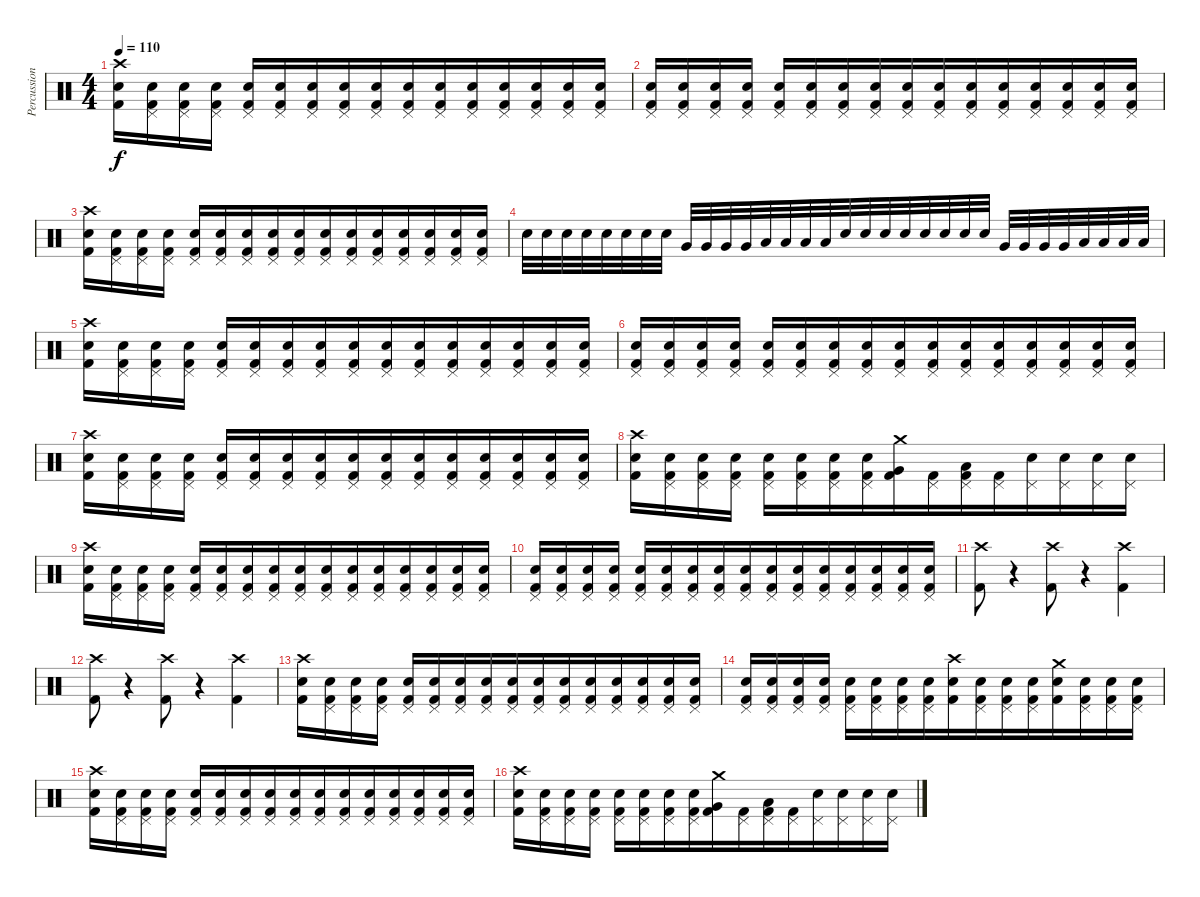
\track ("Percussion" "Percussion") {instrument percussion bank 36}
\staff {score}
\articulation defaults
\ts (4 4)
\tempo 110
\clef neutral
\ks c
("Crash high (hit)" "Electric Snare (hit)" "Kick (hit) 2").16{dy f} ("Pedal Hi-Hat (hit)" "Electric Snare (hit)" "Kick (hit) 2").16 ("Pedal Hi-Hat (hit)" "Electric Snare (hit)" "Kick (hit) 2").16 ("Pedal Hi-Hat (hit)" "Electric Snare (hit)" "Kick (hit) 2").16 ("Pedal Hi-Hat (hit)" "Electric Snare (hit)" "Kick (hit) 2").16 ("Pedal Hi-Hat (hit)" "Electric Snare (hit)" "Kick (hit) 2").16 ("Pedal Hi-Hat (hit)" "Electric Snare (hit)" "Kick (hit) 2").16 ("Pedal Hi-Hat (hit)" "Electric Snare (hit)" "Kick (hit) 2").16{beam merge} ("Pedal Hi-Hat (hit)" "Electric Snare (hit)" "Kick (hit) 2").16{beam merge} ("Pedal Hi-Hat (hit)" "Electric Snare (hit)" "Kick (hit) 2").16{beam merge} ("Pedal Hi-Hat (hit)" "Electric Snare (hit)" "Kick (hit) 2").16 ("Pedal Hi-Hat (hit)" "Electric Snare (hit)" "Kick (hit) 2").16{beam merge} ("Pedal Hi-Hat (hit)" "Electric Snare (hit)" "Kick (hit) 2").16{beam merge} ("Pedal Hi-Hat (hit)" "Electric Snare (hit)" "Kick (hit) 2").16{beam merge} ("Pedal Hi-Hat (hit)" "Electric Snare (hit)" "Kick (hit) 2").16 ("Pedal Hi-Hat (hit)" "Electric Snare (hit)" "Kick (hit) 2").16 |
("Pedal Hi-Hat (hit)" "Electric Snare (hit)" "Kick (hit) 2").16 ("Pedal Hi-Hat (hit)" "Electric Snare (hit)" "Kick (hit) 2").16 ("Pedal Hi-Hat (hit)" "Electric Snare (hit)" "Kick (hit) 2").16 ("Pedal Hi-Hat (hit)" "Electric Snare (hit)" "Kick (hit) 2").16 ("Pedal Hi-Hat (hit)" "Electric Snare (hit)" "Kick (hit) 2").16 ("Pedal Hi-Hat (hit)" "Electric Snare (hit)" "Kick (hit) 2").16 ("Pedal Hi-Hat (hit)" "Electric Snare (hit)" "Kick (hit) 2").16 ("Pedal Hi-Hat (hit)" "Electric Snare (hit)" "Kick (hit) 2").16{beam merge} ("Pedal Hi-Hat (hit)" "Electric Snare (hit)" "Kick (hit) 2").16{beam merge} ("Pedal Hi-Hat (hit)" "Electric Snare (hit)" "Kick (hit) 2").16{beam merge} ("Pedal Hi-Hat (hit)" "Electric Snare (hit)" "Kick (hit) 2").16 ("Pedal Hi-Hat (hit)" "Electric Snare (hit)" "Kick (hit) 2").16{beam merge} ("Pedal Hi-Hat (hit)" "Electric Snare (hit)" "Kick (hit) 2").16{beam merge} ("Pedal Hi-Hat (hit)" "Electric Snare (hit)" "Kick (hit) 2").16{beam merge} ("Pedal Hi-Hat (hit)" "Electric Snare (hit)" "Kick (hit) 2").16 ("Pedal Hi-Hat (hit)" "Electric Snare (hit)" "Kick (hit) 2").16 |
("Crash high (hit)" "Electric Snare (hit)" "Kick (hit) 2").16 ("Pedal Hi-Hat (hit)" "Electric Snare (hit)" "Kick (hit) 2").16 ("Pedal Hi-Hat (hit)" "Electric Snare (hit)" "Kick (hit) 2").16 ("Pedal Hi-Hat (hit)" "Electric Snare (hit)" "Kick (hit) 2").16 ("Pedal Hi-Hat (hit)" "Electric Snare (hit)" "Kick (hit) 2").16 ("Pedal Hi-Hat (hit)" "Electric Snare (hit)" "Kick (hit) 2").16 ("Pedal Hi-Hat (hit)" "Electric Snare (hit)" "Kick (hit) 2").16 ("Pedal Hi-Hat (hit)" "Electric Snare (hit)" "Kick (hit) 2").16{beam merge} ("Pedal Hi-Hat (hit)" "Electric Snare (hit)" "Kick (hit) 2").16{beam merge} ("Pedal Hi-Hat (hit)" "Electric Snare (hit)" "Kick (hit) 2").16{beam merge} ("Pedal Hi-Hat (hit)" "Electric Snare (hit)" "Kick (hit) 2").16 ("Pedal Hi-Hat (hit)" "Electric Snare (hit)" "Kick (hit) 2").16{beam merge} ("Pedal Hi-Hat (hit)" "Electric Snare (hit)" "Kick (hit) 2").16{beam merge} ("Pedal Hi-Hat (hit)" "Electric Snare (hit)" "Kick (hit) 2").16{beam merge} ("Pedal Hi-Hat (hit)" "Electric Snare (hit)" "Kick (hit) 2").16 ("Pedal Hi-Hat (hit)" "Electric Snare (hit)" "Kick (hit) 2").16 |
"Electric Snare (hit)".32{beam merge} "Electric Snare (hit)".32{beam merge} "Electric Snare (hit)".32 "Electric Snare (hit)".32 "Electric Snare (hit)".32{beam merge} "Electric Snare (hit)".32{beam merge} "Electric Snare (hit)".32 "Electric Snare (hit)".32 "Very Low Tom (hit)".32{beam merge} "Very Low Tom (hit)".32 "Very Low Tom (hit)".32{beam merge} "Very Low Tom (hit)".32 "Low Floor Tom (hit)".32{beam merge} "Low Floor Tom (hit)".32 "Low Floor Tom (hit)".32 "Low Floor Tom (hit)".32{beam merge} "Electric Snare (hit)".32{beam merge} "Electric Snare (hit)".32{beam merge} "Electric Snare (hit)".32{beam merge} "Electric Snare (hit)".32{beam merge} "Electric Snare (hit)".32 "Electric Snare (hit)".32{beam merge} "Electric Snare (hit)".32 "Electric Snare (hit)".32 "Very Low Tom (hit)".32 "Very Low Tom (hit)".32 "Very Low Tom (hit)".32{beam merge} "Very Low Tom (hit)".32 "Low Floor Tom (hit)".32{beam merge} "Low Floor Tom (hit)".32{beam merge} "Low Floor Tom (hit)".32{beam merge} "Low Floor Tom (hit)".32 |
("Crash high (hit)" "Electric Snare (hit)" "Kick (hit) 2").16 ("Pedal Hi-Hat (hit)" "Electric Snare (hit)" "Kick (hit) 2").16 ("Pedal Hi-Hat (hit)" "Electric Snare (hit)" "Kick (hit) 2").16 ("Pedal Hi-Hat (hit)" "Electric Snare (hit)" "Kick (hit) 2").16 ("Pedal Hi-Hat (hit)" "Electric Snare (hit)" "Kick (hit) 2").16 ("Pedal Hi-Hat (hit)" "Electric Snare (hit)" "Kick (hit) 2").16 ("Pedal Hi-Hat (hit)" "Electric Snare (hit)" "Kick (hit) 2").16 ("Pedal Hi-Hat (hit)" "Electric Snare (hit)" "Kick (hit) 2").16{beam merge} ("Pedal Hi-Hat (hit)" "Electric Snare (hit)" "Kick (hit) 2").16{beam merge} ("Pedal Hi-Hat (hit)" "Electric Snare (hit)" "Kick (hit) 2").16{beam merge} ("Pedal Hi-Hat (hit)" "Electric Snare (hit)" "Kick (hit) 2").16 ("Pedal Hi-Hat (hit)" "Electric Snare (hit)" "Kick (hit) 2").16{beam merge} ("Pedal Hi-Hat (hit)" "Electric Snare (hit)" "Kick (hit) 2").16{beam merge} ("Pedal Hi-Hat (hit)" "Electric Snare (hit)" "Kick (hit) 2").16{beam merge} ("Pedal Hi-Hat (hit)" "Electric Snare (hit)" "Kick (hit) 2").16 ("Pedal Hi-Hat (hit)" "Electric Snare (hit)" "Kick (hit) 2").16 |
("Pedal Hi-Hat (hit)" "Electric Snare (hit)" "Kick (hit) 2").16 ("Pedal Hi-Hat (hit)" "Electric Snare (hit)" "Kick (hit) 2").16 ("Pedal Hi-Hat (hit)" "Electric Snare (hit)" "Kick (hit) 2").16 ("Pedal Hi-Hat (hit)" "Electric Snare (hit)" "Kick (hit) 2").16 ("Pedal Hi-Hat (hit)" "Electric Snare (hit)" "Kick (hit) 2").16 ("Pedal Hi-Hat (hit)" "Electric Snare (hit)" "Kick (hit) 2").16 ("Pedal Hi-Hat (hit)" "Electric Snare (hit)" "Kick (hit) 2").16 ("Pedal Hi-Hat (hit)" "Electric Snare (hit)" "Kick (hit) 2").16{beam merge} ("Pedal Hi-Hat (hit)" "Electric Snare (hit)" "Kick (hit) 2").16{beam merge} ("Pedal Hi-Hat (hit)" "Electric Snare (hit)" "Kick (hit) 2").16{beam merge} ("Pedal Hi-Hat (hit)" "Electric Snare (hit)" "Kick (hit) 2").16 ("Pedal Hi-Hat (hit)" "Electric Snare (hit)" "Kick (hit) 2").16{beam merge} ("Pedal Hi-Hat (hit)" "Electric Snare (hit)" "Kick (hit) 2").16{beam merge} ("Pedal Hi-Hat (hit)" "Electric Snare (hit)" "Kick (hit) 2").16{beam merge} ("Pedal Hi-Hat (hit)" "Electric Snare (hit)" "Kick (hit) 2").16 ("Pedal Hi-Hat (hit)" "Electric Snare (hit)" "Kick (hit) 2").16 |
("Crash high (hit)" "Electric Snare (hit)" "Kick (hit) 2").16 ("Pedal Hi-Hat (hit)" "Electric Snare (hit)" "Kick (hit) 2").16 ("Pedal Hi-Hat (hit)" "Electric Snare (hit)" "Kick (hit) 2").16 ("Pedal Hi-Hat (hit)" "Electric Snare (hit)" "Kick (hit) 2").16 ("Pedal Hi-Hat (hit)" "Electric Snare (hit)" "Kick (hit) 2").16 ("Pedal Hi-Hat (hit)" "Electric Snare (hit)" "Kick (hit) 2").16 ("Pedal Hi-Hat (hit)" "Electric Snare (hit)" "Kick (hit) 2").16 ("Pedal Hi-Hat (hit)" "Electric Snare (hit)" "Kick (hit) 2").16{beam merge} ("Pedal Hi-Hat (hit)" "Electric Snare (hit)" "Kick (hit) 2").16{beam merge} ("Pedal Hi-Hat (hit)" "Electric Snare (hit)" "Kick (hit) 2").16{beam merge} ("Pedal Hi-Hat (hit)" "Electric Snare (hit)" "Kick (hit) 2").16 ("Pedal Hi-Hat (hit)" "Electric Snare (hit)" "Kick (hit) 2").16{beam merge} ("Pedal Hi-Hat (hit)" "Electric Snare (hit)" "Kick (hit) 2").16{beam merge} ("Pedal Hi-Hat (hit)" "Electric Snare (hit)" "Kick (hit) 2").16{beam merge} ("Pedal Hi-Hat (hit)" "Electric Snare (hit)" "Kick (hit) 2").16 ("Pedal Hi-Hat (hit)" "Electric Snare (hit)" "Kick (hit) 2").16 |
("Crash high (hit)" "Electric Snare (hit)" "Kick (hit) 2").16 ("Pedal Hi-Hat (hit)" "Electric Snare (hit)" "Kick (hit) 2").16 ("Pedal Hi-Hat (hit)" "Electric Snare (hit)" "Kick (hit) 2").16 ("Pedal Hi-Hat (hit)" "Electric Snare (hit)" "Kick (hit) 2").16 ("Pedal Hi-Hat (hit)" "Electric Snare (hit)" "Kick (hit) 2").16 ("Pedal Hi-Hat (hit)" "Electric Snare (hit)" "Kick (hit) 2").16 ("Pedal Hi-Hat (hit)" "Electric Snare (hit)" "Kick (hit) 2").16 ("Pedal Hi-Hat (hit)" "Electric Snare (hit)" "Kick (hit) 2").16{beam merge} ("Crash medium (hit)" "Very Low Tom (hit)" "Kick (hit) 2").16{beam merge} ("Pedal Hi-Hat (hit)" "Kick (hit) 2").16{beam merge} ("Pedal Hi-Hat (hit)" "Low Tom (hit)" "Kick (hit) 2").16 ("Pedal Hi-Hat (hit)" "Kick (hit) 2").16{beam merge} ("Pedal Hi-Hat (hit)" "Electric Snare (hit)").16{beam merge} ("Pedal Hi-Hat (hit)" "Electric Snare (hit)").16{beam merge} ("Pedal Hi-Hat (hit)" "Electric Snare (hit)").16 ("Pedal Hi-Hat (hit)" "Electric Snare (hit)").16 |
("Crash high (hit)" "Electric Snare (hit)" "Kick (hit) 2").16 ("Pedal Hi-Hat (hit)" "Electric Snare (hit)" "Kick (hit) 2").16 ("Pedal Hi-Hat (hit)" "Electric Snare (hit)" "Kick (hit) 2").16 ("Pedal Hi-Hat (hit)" "Electric Snare (hit)" "Kick (hit) 2").16 ("Pedal Hi-Hat (hit)" "Electric Snare (hit)" "Kick (hit) 2").16 ("Pedal Hi-Hat (hit)" "Electric Snare (hit)" "Kick (hit) 2").16 ("Pedal Hi-Hat (hit)" "Electric Snare (hit)" "Kick (hit) 2").16 ("Pedal Hi-Hat (hit)" "Electric Snare (hit)" "Kick (hit) 2").16{beam merge} ("Pedal Hi-Hat (hit)" "Electric Snare (hit)" "Kick (hit) 2").16{beam merge} ("Pedal Hi-Hat (hit)" "Electric Snare (hit)" "Kick (hit) 2").16{beam merge} ("Pedal Hi-Hat (hit)" "Electric Snare (hit)" "Kick (hit) 2").16 ("Pedal Hi-Hat (hit)" "Electric Snare (hit)" "Kick (hit) 2").16{beam merge} ("Pedal Hi-Hat (hit)" "Electric Snare (hit)" "Kick (hit) 2").16{beam merge} ("Pedal Hi-Hat (hit)" "Electric Snare (hit)" "Kick (hit) 2").16{beam merge} ("Pedal Hi-Hat (hit)" "Electric Snare (hit)" "Kick (hit) 2").16 ("Pedal Hi-Hat (hit)" "Electric Snare (hit)" "Kick (hit) 2").16 |
("Pedal Hi-Hat (hit)" "Electric Snare (hit)" "Kick (hit) 2").16 ("Pedal Hi-Hat (hit)" "Electric Snare (hit)" "Kick (hit) 2").16 ("Pedal Hi-Hat (hit)" "Electric Snare (hit)" "Kick (hit) 2").16 ("Pedal Hi-Hat (hit)" "Electric Snare (hit)" "Kick (hit) 2").16 ("Pedal Hi-Hat (hit)" "Electric Snare (hit)" "Kick (hit) 2").16 ("Pedal Hi-Hat (hit)" "Electric Snare (hit)" "Kick (hit) 2").16 ("Pedal Hi-Hat (hit)" "Electric Snare (hit)" "Kick (hit) 2").16 ("Pedal Hi-Hat (hit)" "Electric Snare (hit)" "Kick (hit) 2").16{beam merge} ("Pedal Hi-Hat (hit)" "Electric Snare (hit)" "Kick (hit) 2").16{beam merge} ("Pedal Hi-Hat (hit)" "Electric Snare (hit)" "Kick (hit) 2").16{beam merge} ("Pedal Hi-Hat (hit)" "Electric Snare (hit)" "Kick (hit) 2").16 ("Pedal Hi-Hat (hit)" "Electric Snare (hit)" "Kick (hit) 2").16{beam merge} ("Pedal Hi-Hat (hit)" "Electric Snare (hit)" "Kick (hit) 2").16{beam merge} ("Pedal Hi-Hat (hit)" "Electric Snare (hit)" "Kick (hit) 2").16{beam merge} ("Pedal Hi-Hat (hit)" "Electric Snare (hit)" "Kick (hit) 2").16 ("Pedal Hi-Hat (hit)" "Electric Snare (hit)" "Kick (hit) 2").16 |
("Crash high (hit)" "Kick (hit) 2").8 r.4 ("Crash high (hit)" "Kick (hit) 2").8 r.4{beam merge} ("Crash high (hit)" "Kick (hit) 2").4 |
("Crash high (hit)" "Kick (hit) 2").8 r.4 ("Crash high (hit)" "Kick (hit) 2").8 r.4{beam merge} ("Crash high (hit)" "Kick (hit) 2").4 |
("Crash high (hit)" "Electric Snare (hit)" "Kick (hit) 2").16 ("Pedal Hi-Hat (hit)" "Electric Snare (hit)" "Kick (hit) 2").16 ("Pedal Hi-Hat (hit)" "Electric Snare (hit)" "Kick (hit) 2").16 ("Pedal Hi-Hat (hit)" "Electric Snare (hit)" "Kick (hit) 2").16 ("Pedal Hi-Hat (hit)" "Electric Snare (hit)" "Kick (hit) 2").16 ("Pedal Hi-Hat (hit)" "Electric Snare (hit)" "Kick (hit) 2").16 ("Pedal Hi-Hat (hit)" "Electric Snare (hit)" "Kick (hit) 2").16 ("Pedal Hi-Hat (hit)" "Electric Snare (hit)" "Kick (hit) 2").16{beam merge} ("Pedal Hi-Hat (hit)" "Electric Snare (hit)" "Kick (hit) 2").16{beam merge} ("Pedal Hi-Hat (hit)" "Electric Snare (hit)" "Kick (hit) 2").16{beam merge} ("Pedal Hi-Hat (hit)" "Electric Snare (hit)" "Kick (hit) 2").16 ("Pedal Hi-Hat (hit)" "Electric Snare (hit)" "Kick (hit) 2").16{beam merge} ("Pedal Hi-Hat (hit)" "Electric Snare (hit)" "Kick (hit) 2").16{beam merge} ("Pedal Hi-Hat (hit)" "Electric Snare (hit)" "Kick (hit) 2").16{beam merge} ("Pedal Hi-Hat (hit)" "Electric Snare (hit)" "Kick (hit) 2").16 ("Pedal Hi-Hat (hit)" "Electric Snare (hit)" "Kick (hit) 2").16 |
("Pedal Hi-Hat (hit)" "Electric Snare (hit)" "Kick (hit) 2").16 ("Pedal Hi-Hat (hit)" "Electric Snare (hit)" "Kick (hit) 2").16 ("Pedal Hi-Hat (hit)" "Electric Snare (hit)" "Kick (hit) 2").16 ("Pedal Hi-Hat (hit)" "Electric Snare (hit)" "Kick (hit) 2").16 ("Pedal Hi-Hat (hit)" "Electric Snare (hit)" "Kick (hit) 2").16 ("Pedal Hi-Hat (hit)" "Electric Snare (hit)" "Kick (hit) 2").16 ("Pedal Hi-Hat (hit)" "Electric Snare (hit)" "Kick (hit) 2").16 ("Pedal Hi-Hat (hit)" "Electric Snare (hit)" "Kick (hit) 2").16{beam merge} ("Crash high (hit)" "Electric Snare (hit)" "Kick (hit) 2").16{beam merge} ("Pedal Hi-Hat (hit)" "Electric Snare (hit)" "Kick (hit) 2").16{beam merge} ("Pedal Hi-Hat (hit)" "Electric Snare (hit)" "Kick (hit) 2").16 ("Pedal Hi-Hat (hit)" "Electric Snare (hit)" "Kick (hit) 2").16{beam merge} ("Crash medium (hit)" "Electric Snare (hit)" "Kick (hit) 2").16{beam merge} ("Pedal Hi-Hat (hit)" "Electric Snare (hit)" "Kick (hit) 2").16{beam merge} ("Pedal Hi-Hat (hit)" "Electric Snare (hit)" "Kick (hit) 2").16 ("Pedal Hi-Hat (hit)" "Electric Snare (hit)" "Kick (hit) 2").16 |
("Crash high (hit)" "Electric Snare (hit)" "Kick (hit) 2").16 ("Pedal Hi-Hat (hit)" "Electric Snare (hit)" "Kick (hit) 2").16 ("Pedal Hi-Hat (hit)" "Electric Snare (hit)" "Kick (hit) 2").16 ("Pedal Hi-Hat (hit)" "Electric Snare (hit)" "Kick (hit) 2").16 ("Pedal Hi-Hat (hit)" "Electric Snare (hit)" "Kick (hit) 2").16 ("Pedal Hi-Hat (hit)" "Electric Snare (hit)" "Kick (hit) 2").16 ("Pedal Hi-Hat (hit)" "Electric Snare (hit)" "Kick (hit) 2").16 ("Pedal Hi-Hat (hit)" "Electric Snare (hit)" "Kick (hit) 2").16{beam merge} ("Pedal Hi-Hat (hit)" "Electric Snare (hit)" "Kick (hit) 2").16{beam merge} ("Pedal Hi-Hat (hit)" "Electric Snare (hit)" "Kick (hit) 2").16{beam merge} ("Pedal Hi-Hat (hit)" "Electric Snare (hit)" "Kick (hit) 2").16 ("Pedal Hi-Hat (hit)" "Electric Snare (hit)" "Kick (hit) 2").16{beam merge} ("Pedal Hi-Hat (hit)" "Electric Snare (hit)" "Kick (hit) 2").16{beam merge} ("Pedal Hi-Hat (hit)" "Electric Snare (hit)" "Kick (hit) 2").16{beam merge} ("Pedal Hi-Hat (hit)" "Electric Snare (hit)" "Kick (hit) 2").16 ("Pedal Hi-Hat (hit)" "Electric Snare (hit)" "Kick (hit) 2").16 |
("Crash high (hit)" "Electric Snare (hit)" "Kick (hit) 2").16 ("Pedal Hi-Hat (hit)" "Electric Snare (hit)" "Kick (hit) 2").16 ("Pedal Hi-Hat (hit)" "Electric Snare (hit)" "Kick (hit) 2").16 ("Pedal Hi-Hat (hit)" "Electric Snare (hit)" "Kick (hit) 2").16 ("Pedal Hi-Hat (hit)" "Electric Snare (hit)" "Kick (hit) 2").16 ("Pedal Hi-Hat (hit)" "Electric Snare (hit)" "Kick (hit) 2").16 ("Pedal Hi-Hat (hit)" "Electric Snare (hit)" "Kick (hit) 2").16 ("Pedal Hi-Hat (hit)" "Electric Snare (hit)" "Kick (hit) 2").16{beam merge} ("Crash medium (hit)" "Very Low Tom (hit)" "Kick (hit) 2").16{beam merge} ("Pedal Hi-Hat (hit)" "Kick (hit) 2").16{beam merge} ("Pedal Hi-Hat (hit)" "Low Tom (hit)" "Kick (hit) 2").16 ("Pedal Hi-Hat (hit)" "Kick (hit) 2").16{beam merge} ("Pedal Hi-Hat (hit)" "Electric Snare (hit)").16{beam merge} ("Pedal Hi-Hat (hit)" "Electric Snare (hit)").16{beam merge} ("Pedal Hi-Hat (hit)" "Electric Snare (hit)").16 ("Pedal Hi-Hat (hit)" "Electric Snare (hit)").16
